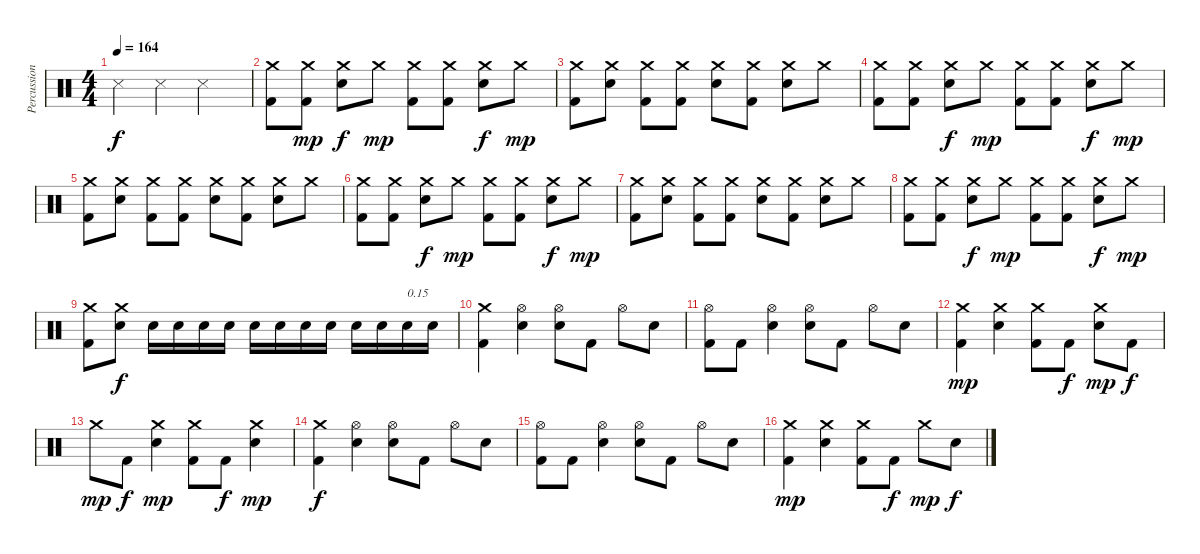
\track ("Percussions" "Percussion") {instrument percussion}
\staff {score}
\articulation defaults
\ts (4 4)
\tempo 164
\clef neutral
\ks c "Metronome (hit)".4{dy f} "Metronome (hit)".4 "Metronome (hit)".2
|
("Kick (hit) 2" "Crash medium (hit)").8 ("Kick (hit) 2" "Crash medium (hit)").8{dy mp} ("Snare (hit) 2" "Crash medium (hit)").8{dy f} "Crash medium (hit)".8{dy mp} ("Kick (hit) 2" "Crash medium (hit)").8 ("Kick (hit) 2" "Crash medium (hit)").8 ("Snare (hit) 2" "Crash medium (hit)").8{dy f} "Crash medium (hit)".8{dy mp} |
("Kick (hit) 2" "Crash medium (hit)").8 ("Snare (hit) 2" "Crash medium (hit)").8 ("Kick (hit) 2" "Crash medium (hit)").8 ("Kick (hit) 2" "Crash medium (hit)").8 ("Snare (hit) 2" "Crash medium (hit)").8 ("Kick (hit) 2" "Crash medium (hit)").8 ("Snare (hit) 2" "Crash medium (hit)").8 "Crash medium (hit)".8 |
("Kick (hit) 2" "Crash medium (hit)").8 ("Kick (hit) 2" "Crash medium (hit)").8 ("Snare (hit) 2" "Crash medium (hit)").8{dy f} "Crash medium (hit)".8{dy mp} ("Kick (hit) 2" "Crash medium (hit)").8 ("Kick (hit) 2" "Crash medium (hit)").8 ("Snare (hit) 2" "Crash medium (hit)").8{dy f} "Crash medium (hit)".8{dy mp} |
("Kick (hit) 2" "Crash medium (hit)").8 ("Snare (hit) 2" "Crash medium (hit)").8 ("Kick (hit) 2" "Crash medium (hit)").8 ("Kick (hit) 2" "Crash medium (hit)").8 ("Snare (hit) 2" "Crash medium (hit)").8 ("Kick (hit) 2" "Crash medium (hit)").8 ("Snare (hit) 2" "Crash medium (hit)").8 "Crash medium (hit)".8 |
("Kick (hit) 2" "Crash medium (hit)").8 ("Kick (hit) 2" "Crash medium (hit)").8 ("Snare (hit) 2" "Crash medium (hit)").8{dy f} "Crash medium (hit)".8{dy mp} ("Kick (hit) 2" "Crash medium (hit)").8 ("Kick (hit) 2" "Crash medium (hit)").8 ("Snare (hit) 2" "Crash medium (hit)").8{dy f} "Crash medium (hit)".8{dy mp} |
("Kick (hit) 2" "Crash medium (hit)").8 ("Snare (hit) 2" "Crash medium (hit)").8 ("Kick (hit) 2" "Crash medium (hit)").8 ("Kick (hit) 2" "Crash medium (hit)").8 ("Snare (hit) 2" "Crash medium (hit)").8 ("Kick (hit) 2" "Crash medium (hit)").8 ("Snare (hit) 2" "Crash medium (hit)").8 "Crash medium (hit)".8 |
("Kick (hit) 2" "Crash medium (hit)").8 ("Kick (hit) 2" "Crash medium (hit)").8 ("Snare (hit) 2" "Crash medium (hit)").8{dy f} "Crash medium (hit)".8{dy mp} ("Kick (hit) 2" "Crash medium (hit)").8 ("Kick (hit) 2" "Crash medium (hit)").8 ("Snare (hit) 2" "Crash medium (hit)").8{dy f} "Crash medium (hit)".8{dy mp} |
("Kick (hit) 2" "Crash medium (hit)").8 ("Snare (hit) 2" "Crash medium (hit)").8{dy f} "Snare (hit) 2".16 "Snare (hit) 2".16 "Snare (hit) 2".16 "Snare (hit) 2".16 "Snare (hit) 2".16 "Snare (hit) 2".16 "Snare (hit) 2".16 "Snare (hit) 2".16 "Snare (hit) 2".16 "Snare (hit) 2".16 "Snare (hit) 2".16{txt "0.15"} "Snare (hit) 2".16 |
("Kick (hit) 2" "Crash medium (hit)").4 ("Snare (hit) 2" "Hi-Hat (open)").4 ("Snare (hit) 2" "Hi-Hat (open)").8 "Kick (hit) 2".8 "Hi-Hat (open)".8 "Snare (hit) 2".8 |
("Kick (hit) 2" "Hi-Hat (open)").8 "Kick (hit) 2".8 ("Snare (hit) 2" "Hi-Hat (open)").4 ("Snare (hit) 2" "Hi-Hat (open)").8 "Kick (hit) 2".8 "Hi-Hat (open)".8 "Snare (hit) 2".8 |
("Kick (hit) 2" "Crash medium (hit)").4{dy mp} ("Snare (hit) 2" "Crash medium (hit)").4 ("Kick (hit) 2" "Crash medium (hit)").8 "Kick (hit) 2".8{dy f} ("Snare (hit) 2" "Crash medium (hit)").8{dy mp} "Kick (hit) 2".8{dy f} |
"Crash medium (hit)".8{dy mp} "Kick (hit) 2".8{dy f} ("Snare (hit) 2" "Crash medium (hit)").4{dy mp} ("Kick (hit) 2" "Crash medium (hit)").8 "Kick (hit) 2".8{dy f} ("Snare (hit) 2" "Crash medium (hit)").4{dy mp} |
("Kick (hit) 2" "Crash medium (hit)").4{dy f} ("Snare (hit) 2" "Hi-Hat (open)").4 ("Snare (hit) 2" "Hi-Hat (open)").8 "Kick (hit) 2".8 "Hi-Hat (open)".8 "Snare (hit) 2".8 |
("Kick (hit) 2" "Hi-Hat (open)").8 "Kick (hit) 2".8 ("Snare (hit) 2" "Hi-Hat (open)").4 ("Snare (hit) 2" "Hi-Hat (open)").8 "Kick (hit) 2".8 "Hi-Hat (open)".8 "Snare (hit) 2".8 |
("Kick (hit) 2" "Crash medium (hit)").4{dy mp} ("Snare (hit) 2" "Crash medium (hit)").4 ("Kick (hit) 2" "Crash medium (hit)").8 "Kick (hit) 2".8{dy f} "Crash medium (hit)".8{dy mp} "Snare (hit) 2".8{dy f}
